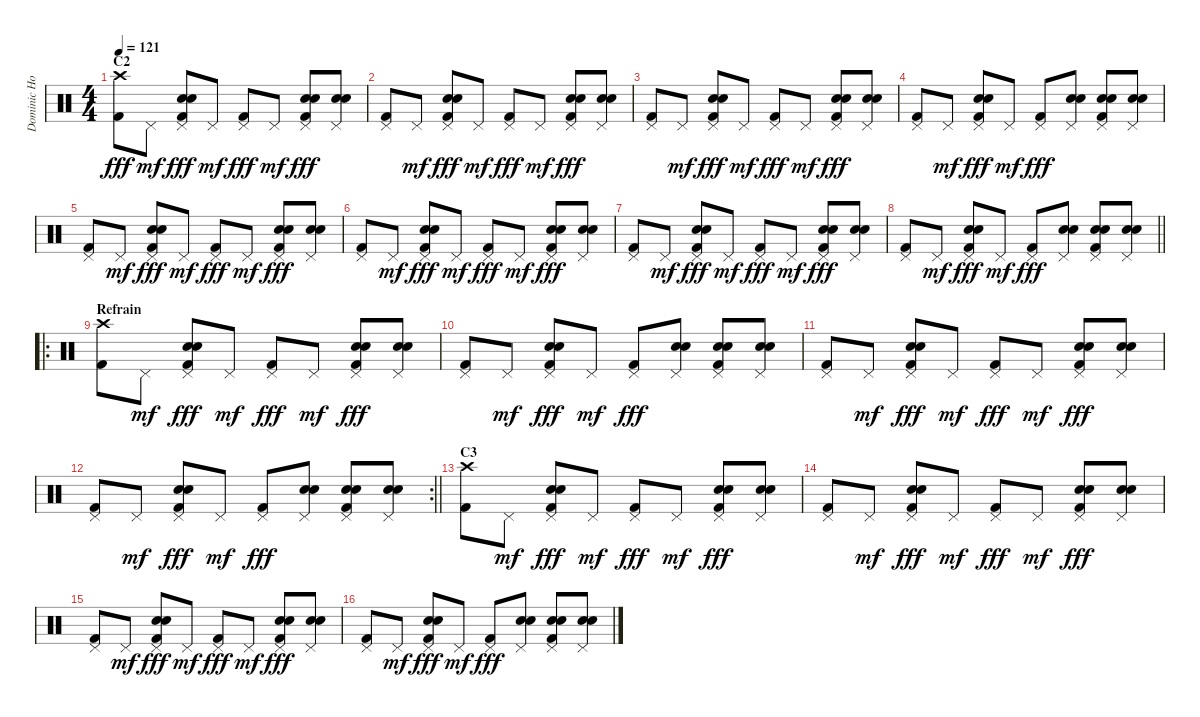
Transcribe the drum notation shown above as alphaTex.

\track ("Dominic Howard" "Dominic Ho") {instrument percussion}
\staff {score}
\articulation defaults
\ts (4 4)
\section ("" "C2")
\tempo 121
\clef neutral
\ks c
("Crash high (hit)" "Kick (hit) 2").8{dy fff} "Pedal Hi-Hat (hit)".8{dy mf} ("Pedal Hi-Hat (hit)" "Hand Clap (hit)" "Electric Snare (hit)" "Kick (hit) 2").8{dy fff} "Pedal Hi-Hat (hit)".8{dy mf} ("Pedal Hi-Hat (hit)" "Kick (hit) 2").8{dy fff} "Pedal Hi-Hat (hit)".8{dy mf} ("Pedal Hi-Hat (hit)" "Hand Clap (hit)" "Electric Snare (hit)" "Kick (hit) 2").8{dy fff} ("Pedal Hi-Hat (hit)" "Hand Clap (hit)" "Electric Snare (hit)").8 |
("Pedal Hi-Hat (hit)" "Kick (hit) 2").8 "Pedal Hi-Hat (hit)".8{dy mf} ("Pedal Hi-Hat (hit)" "Hand Clap (hit)" "Electric Snare (hit)" "Kick (hit) 2").8{dy fff} "Pedal Hi-Hat (hit)".8{dy mf} ("Pedal Hi-Hat (hit)" "Kick (hit) 2").8{dy fff} "Pedal Hi-Hat (hit)".8{dy mf} ("Pedal Hi-Hat (hit)" "Hand Clap (hit)" "Electric Snare (hit)" "Kick (hit) 2").8{dy fff} ("Pedal Hi-Hat (hit)" "Hand Clap (hit)" "Electric Snare (hit)").8 |
("Pedal Hi-Hat (hit)" "Kick (hit) 2").8 "Pedal Hi-Hat (hit)".8{dy mf} ("Pedal Hi-Hat (hit)" "Hand Clap (hit)" "Electric Snare (hit)" "Kick (hit) 2").8{dy fff} "Pedal Hi-Hat (hit)".8{dy mf} ("Pedal Hi-Hat (hit)" "Kick (hit) 2").8{dy fff} "Pedal Hi-Hat (hit)".8{dy mf} ("Pedal Hi-Hat (hit)" "Hand Clap (hit)" "Electric Snare (hit)" "Kick (hit) 2").8{dy fff} ("Pedal Hi-Hat (hit)" "Hand Clap (hit)" "Electric Snare (hit)").8 |
("Pedal Hi-Hat (hit)" "Kick (hit) 2").8 "Pedal Hi-Hat (hit)".8{dy mf} ("Pedal Hi-Hat (hit)" "Hand Clap (hit)" "Electric Snare (hit)" "Kick (hit) 2").8{dy fff} "Pedal Hi-Hat (hit)".8{dy mf} ("Pedal Hi-Hat (hit)" "Kick (hit) 2").8{dy fff} ("Pedal Hi-Hat (hit)" "Hand Clap (hit)" "Electric Snare (hit)").8 ("Pedal Hi-Hat (hit)" "Hand Clap (hit)" "Electric Snare (hit)" "Kick (hit) 2").8 ("Pedal Hi-Hat (hit)" "Hand Clap (hit)" "Electric Snare (hit)").8 |
("Pedal Hi-Hat (hit)" "Kick (hit) 2").8 "Pedal Hi-Hat (hit)".8{dy mf} ("Pedal Hi-Hat (hit)" "Hand Clap (hit)" "Electric Snare (hit)" "Kick (hit) 2").8{dy fff} "Pedal Hi-Hat (hit)".8{dy mf} ("Pedal Hi-Hat (hit)" "Kick (hit) 2").8{dy fff} "Pedal Hi-Hat (hit)".8{dy mf} ("Pedal Hi-Hat (hit)" "Hand Clap (hit)" "Electric Snare (hit)" "Kick (hit) 2").8{dy fff} ("Pedal Hi-Hat (hit)" "Hand Clap (hit)" "Electric Snare (hit)").8 |
("Pedal Hi-Hat (hit)" "Kick (hit) 2").8 "Pedal Hi-Hat (hit)".8{dy mf} ("Pedal Hi-Hat (hit)" "Hand Clap (hit)" "Electric Snare (hit)" "Kick (hit) 2").8{dy fff} "Pedal Hi-Hat (hit)".8{dy mf} ("Pedal Hi-Hat (hit)" "Kick (hit) 2").8{dy fff} "Pedal Hi-Hat (hit)".8{dy mf} ("Pedal Hi-Hat (hit)" "Hand Clap (hit)" "Electric Snare (hit)" "Kick (hit) 2").8{dy fff} ("Pedal Hi-Hat (hit)" "Hand Clap (hit)" "Electric Snare (hit)").8 |
("Pedal Hi-Hat (hit)" "Kick (hit) 2").8 "Pedal Hi-Hat (hit)".8{dy mf} ("Pedal Hi-Hat (hit)" "Hand Clap (hit)" "Electric Snare (hit)" "Kick (hit) 2").8{dy fff} "Pedal Hi-Hat (hit)".8{dy mf} ("Pedal Hi-Hat (hit)" "Kick (hit) 2").8{dy fff} "Pedal Hi-Hat (hit)".8{dy mf} ("Pedal Hi-Hat (hit)" "Hand Clap (hit)" "Electric Snare (hit)" "Kick (hit) 2").8{dy fff} ("Pedal Hi-Hat (hit)" "Hand Clap (hit)" "Electric Snare (hit)").8 |
\barLineRight lightlight
("Pedal Hi-Hat (hit)" "Kick (hit) 2").8 "Pedal Hi-Hat (hit)".8{dy mf} ("Pedal Hi-Hat (hit)" "Hand Clap (hit)" "Electric Snare (hit)" "Kick (hit) 2").8{dy fff} "Pedal Hi-Hat (hit)".8{dy mf} ("Pedal Hi-Hat (hit)" "Kick (hit) 2").8{dy fff} ("Pedal Hi-Hat (hit)" "Hand Clap (hit)" "Electric Snare (hit)").8 ("Pedal Hi-Hat (hit)" "Hand Clap (hit)" "Electric Snare (hit)" "Kick (hit) 2").8 ("Pedal Hi-Hat (hit)" "Hand Clap (hit)" "Electric Snare (hit)").8 |
\ro
\section ("" "Refrain")
("Crash high (hit)" "Kick (hit) 2").8 "Pedal Hi-Hat (hit)".8{dy mf} ("Pedal Hi-Hat (hit)" "Hand Clap (hit)" "Electric Snare (hit)" "Kick (hit) 2").8{dy fff} "Pedal Hi-Hat (hit)".8{dy mf} ("Pedal Hi-Hat (hit)" "Kick (hit) 2").8{dy fff} "Pedal Hi-Hat (hit)".8{dy mf} ("Pedal Hi-Hat (hit)" "Hand Clap (hit)" "Electric Snare (hit)" "Kick (hit) 2").8{dy fff} ("Pedal Hi-Hat (hit)" "Hand Clap (hit)" "Electric Snare (hit)").8 |
("Pedal Hi-Hat (hit)" "Kick (hit) 2").8 "Pedal Hi-Hat (hit)".8{dy mf} ("Pedal Hi-Hat (hit)" "Hand Clap (hit)" "Electric Snare (hit)" "Kick (hit) 2").8{dy fff} "Pedal Hi-Hat (hit)".8{dy mf} ("Pedal Hi-Hat (hit)" "Kick (hit) 2").8{dy fff} ("Pedal Hi-Hat (hit)" "Hand Clap (hit)" "Electric Snare (hit)").8 ("Pedal Hi-Hat (hit)" "Hand Clap (hit)" "Electric Snare (hit)" "Kick (hit) 2").8 ("Pedal Hi-Hat (hit)" "Hand Clap (hit)" "Electric Snare (hit)").8 |
("Pedal Hi-Hat (hit)" "Kick (hit) 2").8 "Pedal Hi-Hat (hit)".8{dy mf} ("Pedal Hi-Hat (hit)" "Hand Clap (hit)" "Electric Snare (hit)" "Kick (hit) 2").8{dy fff} "Pedal Hi-Hat (hit)".8{dy mf} ("Pedal Hi-Hat (hit)" "Kick (hit) 2").8{dy fff} "Pedal Hi-Hat (hit)".8{dy mf} ("Pedal Hi-Hat (hit)" "Hand Clap (hit)" "Electric Snare (hit)" "Kick (hit) 2").8{dy fff} ("Pedal Hi-Hat (hit)" "Hand Clap (hit)" "Electric Snare (hit)").8 |
\rc 2
\barLineRight lightlight
("Pedal Hi-Hat (hit)" "Kick (hit) 2").8 "Pedal Hi-Hat (hit)".8{dy mf} ("Pedal Hi-Hat (hit)" "Hand Clap (hit)" "Electric Snare (hit)" "Kick (hit) 2").8{dy fff} "Pedal Hi-Hat (hit)".8{dy mf} ("Pedal Hi-Hat (hit)" "Kick (hit) 2").8{dy fff} ("Pedal Hi-Hat (hit)" "Hand Clap (hit)" "Electric Snare (hit)").8 ("Pedal Hi-Hat (hit)" "Hand Clap (hit)" "Electric Snare (hit)" "Kick (hit) 2").8 ("Pedal Hi-Hat (hit)" "Hand Clap (hit)" "Electric Snare (hit)").8 |
\section ("" "C3")
("Crash high (hit)" "Kick (hit) 2").8 "Pedal Hi-Hat (hit)".8{dy mf} ("Pedal Hi-Hat (hit)" "Hand Clap (hit)" "Electric Snare (hit)" "Kick (hit) 2").8{dy fff} "Pedal Hi-Hat (hit)".8{dy mf} ("Pedal Hi-Hat (hit)" "Kick (hit) 2").8{dy fff} "Pedal Hi-Hat (hit)".8{dy mf} ("Pedal Hi-Hat (hit)" "Hand Clap (hit)" "Electric Snare (hit)" "Kick (hit) 2").8{dy fff} ("Pedal Hi-Hat (hit)" "Hand Clap (hit)" "Electric Snare (hit)").8 |
("Pedal Hi-Hat (hit)" "Kick (hit) 2").8 "Pedal Hi-Hat (hit)".8{dy mf} ("Pedal Hi-Hat (hit)" "Hand Clap (hit)" "Electric Snare (hit)" "Kick (hit) 2").8{dy fff} "Pedal Hi-Hat (hit)".8{dy mf} ("Pedal Hi-Hat (hit)" "Kick (hit) 2").8{dy fff} "Pedal Hi-Hat (hit)".8{dy mf} ("Pedal Hi-Hat (hit)" "Hand Clap (hit)" "Electric Snare (hit)" "Kick (hit) 2").8{dy fff} ("Pedal Hi-Hat (hit)" "Hand Clap (hit)" "Electric Snare (hit)").8 |
("Pedal Hi-Hat (hit)" "Kick (hit) 2").8 "Pedal Hi-Hat (hit)".8{dy mf} ("Pedal Hi-Hat (hit)" "Hand Clap (hit)" "Electric Snare (hit)" "Kick (hit) 2").8{dy fff} "Pedal Hi-Hat (hit)".8{dy mf} ("Pedal Hi-Hat (hit)" "Kick (hit) 2").8{dy fff} "Pedal Hi-Hat (hit)".8{dy mf} ("Pedal Hi-Hat (hit)" "Hand Clap (hit)" "Electric Snare (hit)" "Kick (hit) 2").8{dy fff} ("Pedal Hi-Hat (hit)" "Hand Clap (hit)" "Electric Snare (hit)").8 |
("Pedal Hi-Hat (hit)" "Kick (hit) 2").8 "Pedal Hi-Hat (hit)".8{dy mf} ("Pedal Hi-Hat (hit)" "Hand Clap (hit)" "Electric Snare (hit)" "Kick (hit) 2").8{dy fff} "Pedal Hi-Hat (hit)".8{dy mf} ("Pedal Hi-Hat (hit)" "Kick (hit) 2").8{dy fff} ("Pedal Hi-Hat (hit)" "Hand Clap (hit)" "Electric Snare (hit)").8 ("Pedal Hi-Hat (hit)" "Hand Clap (hit)" "Electric Snare (hit)" "Kick (hit) 2").8 ("Pedal Hi-Hat (hit)" "Hand Clap (hit)" "Electric Snare (hit)").8
